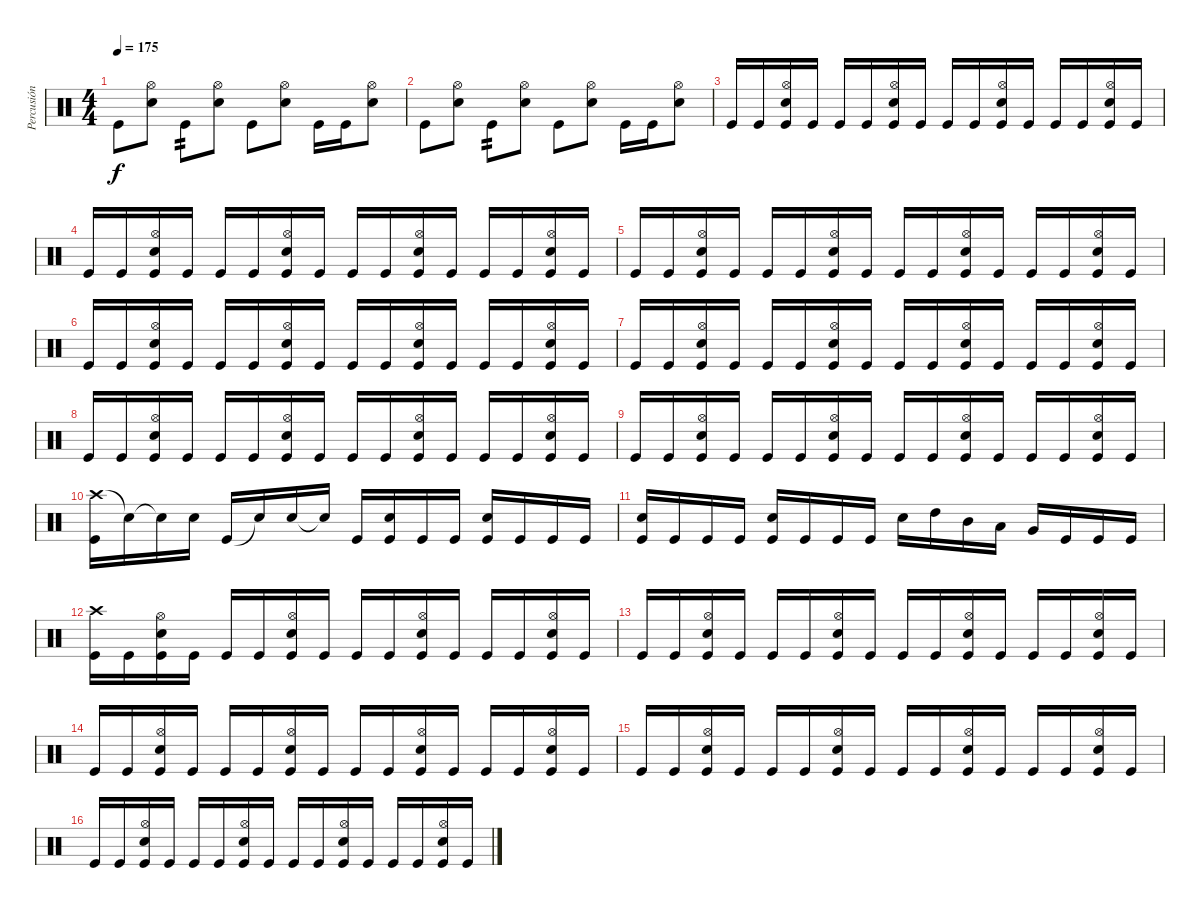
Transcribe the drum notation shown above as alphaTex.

\track ("Percusión" "Percusión") {instrument percussion}
\staff {score}
\articulation defaults
\ts (4 4)
\tempo 175
\clef neutral
\ks c "Kick (hit)".8{dy f}
("Hi-Hat (open)" "Snare (hit) 2").8 "Kick (hit)".8{tp 2} ("Hi-Hat (open)" "Snare (hit) 2").8 "Kick (hit)".8 ("Hi-Hat (open)" "Snare (hit) 2").8 "Kick (hit)".16 "Kick (hit)".16 ("Hi-Hat (open)" "Snare (hit) 2").8 |
"Kick (hit)".8 ("Hi-Hat (open)" "Snare (hit) 2").8 "Kick (hit)".8{tp 2} ("Hi-Hat (open)" "Snare (hit) 2").8 "Kick (hit)".8 ("Hi-Hat (open)" "Snare (hit) 2").8 "Kick (hit)".16 "Kick (hit)".16 ("Hi-Hat (open)" "Snare (hit) 2").8 |
"Kick (hit)".16 "Kick (hit)".16 ("Hi-Hat (open)" "Snare (hit) 2" "Kick (hit)").16 "Kick (hit)".16 "Kick (hit)".16 "Kick (hit)".16 ("Hi-Hat (open)" "Snare (hit) 2" "Kick (hit)").16 "Kick (hit)".16 "Kick (hit)".16 "Kick (hit)".16 ("Hi-Hat (open)" "Snare (hit) 2" "Kick (hit)").16 "Kick (hit)".16 "Kick (hit)".16 "Kick (hit)".16 ("Hi-Hat (open)" "Snare (hit) 2" "Kick (hit)").16 "Kick (hit)".16 |
"Kick (hit)".16 "Kick (hit)".16 ("Hi-Hat (open)" "Snare (hit) 2" "Kick (hit)").16 "Kick (hit)".16 "Kick (hit)".16 "Kick (hit)".16 ("Hi-Hat (open)" "Snare (hit) 2" "Kick (hit)").16 "Kick (hit)".16 "Kick (hit)".16 "Kick (hit)".16 ("Hi-Hat (open)" "Snare (hit) 2" "Kick (hit)").16 "Kick (hit)".16 "Kick (hit)".16 "Kick (hit)".16 ("Hi-Hat (open)" "Snare (hit) 2" "Kick (hit)").16 "Kick (hit)".16 |
"Kick (hit)".16 "Kick (hit)".16 ("Hi-Hat (open)" "Snare (hit) 2" "Kick (hit)").16 "Kick (hit)".16 "Kick (hit)".16 "Kick (hit)".16 ("Hi-Hat (open)" "Snare (hit) 2" "Kick (hit)").16 "Kick (hit)".16 "Kick (hit)".16 "Kick (hit)".16 ("Hi-Hat (open)" "Snare (hit) 2" "Kick (hit)").16 "Kick (hit)".16 "Kick (hit)".16 "Kick (hit)".16 ("Hi-Hat (open)" "Snare (hit) 2" "Kick (hit)").16 "Kick (hit)".16 |
"Kick (hit)".16 "Kick (hit)".16 ("Hi-Hat (open)" "Snare (hit) 2" "Kick (hit)").16 "Kick (hit)".16 "Kick (hit)".16 "Kick (hit)".16 ("Hi-Hat (open)" "Snare (hit) 2" "Kick (hit)").16 "Kick (hit)".16 "Kick (hit)".16 "Kick (hit)".16 ("Hi-Hat (open)" "Snare (hit) 2" "Kick (hit)").16 "Kick (hit)".16 "Kick (hit)".16 "Kick (hit)".16 ("Hi-Hat (open)" "Snare (hit) 2" "Kick (hit)").16 "Kick (hit)".16 |
"Kick (hit)".16 "Kick (hit)".16 ("Hi-Hat (open)" "Snare (hit) 2" "Kick (hit)").16 "Kick (hit)".16 "Kick (hit)".16 "Kick (hit)".16 ("Hi-Hat (open)" "Snare (hit) 2" "Kick (hit)").16 "Kick (hit)".16 "Kick (hit)".16 "Kick (hit)".16 ("Hi-Hat (open)" "Snare (hit) 2" "Kick (hit)").16 "Kick (hit)".16 "Kick (hit)".16 "Kick (hit)".16 ("Hi-Hat (open)" "Snare (hit) 2" "Kick (hit)").16 "Kick (hit)".16 |
"Kick (hit)".16 "Kick (hit)".16 ("Hi-Hat (open)" "Snare (hit) 2" "Kick (hit)").16 "Kick (hit)".16 "Kick (hit)".16 "Kick (hit)".16 ("Hi-Hat (open)" "Snare (hit) 2" "Kick (hit)").16 "Kick (hit)".16 "Kick (hit)".16 "Kick (hit)".16 ("Hi-Hat (open)" "Snare (hit) 2" "Kick (hit)").16 "Kick (hit)".16 "Kick (hit)".16 "Kick (hit)".16 ("Hi-Hat (open)" "Snare (hit) 2" "Kick (hit)").16 "Kick (hit)".16 |
"Kick (hit)".16 "Kick (hit)".16 ("Hi-Hat (open)" "Snare (hit) 2" "Kick (hit)").16 "Kick (hit)".16 "Kick (hit)".16 "Kick (hit)".16 ("Hi-Hat (open)" "Snare (hit) 2" "Kick (hit)").16 "Kick (hit)".16 "Kick (hit)".16 "Kick (hit)".16 ("Hi-Hat (open)" "Snare (hit) 2" "Kick (hit)").16 "Kick (hit)".16 "Kick (hit)".16 "Kick (hit)".16 ("Hi-Hat (open)" "Snare (hit) 2" "Kick (hit)").16 "Kick (hit)".16 |
("Crash high (hit)" "Kick (hit)").16 "Snare (hit)"{t}.16 "Snare (hit)"{t}.16 "Snare (hit) 2".16 "Kick (hit)".16 "Snare (hit)"{t}.16 "Snare (hit) 2".16 "Snare (hit)"{t}.16 "Kick (hit)".16 ("Snare (hit) 2" "Kick (hit)").16 "Kick (hit)".16 "Kick (hit)".16 ("Snare (hit) 2" "Kick (hit)").16 "Kick (hit)".16 "Kick (hit)".16 "Kick (hit)".16 |
("Snare (hit) 2" "Kick (hit)").16 "Kick (hit)".16 "Kick (hit)".16 "Kick (hit)".16 ("Snare (hit) 2" "Kick (hit)").16 "Kick (hit)".16 "Kick (hit)".16 "Kick (hit)".16 "Snare (hit) 2".16 "High Tom (hit)".16 "Mid Tom (hit)".16 "Low Tom (hit)".16 "Very Low Tom (hit)".16 "Kick (hit)".16 "Kick (hit)".16 "Kick (hit)".16 |
("Crash high (hit)" "Kick (hit)").16 "Kick (hit)".16 ("Hi-Hat (open)" "Snare (hit) 2" "Kick (hit)").16 "Kick (hit)".16 "Kick (hit)".16 "Kick (hit)".16 ("Hi-Hat (open)" "Snare (hit) 2" "Kick (hit)").16 "Kick (hit)".16 "Kick (hit)".16 "Kick (hit)".16 ("Hi-Hat (open)" "Snare (hit) 2" "Kick (hit)").16 "Kick (hit)".16 "Kick (hit)".16 "Kick (hit)".16 ("Hi-Hat (open)" "Snare (hit) 2" "Kick (hit)").16 "Kick (hit)".16 |
"Kick (hit)".16 "Kick (hit)".16 ("Hi-Hat (open)" "Snare (hit) 2" "Kick (hit)").16 "Kick (hit)".16 "Kick (hit)".16 "Kick (hit)".16 ("Hi-Hat (open)" "Snare (hit) 2" "Kick (hit)").16 "Kick (hit)".16 "Kick (hit)".16 "Kick (hit)".16 ("Hi-Hat (open)" "Snare (hit) 2" "Kick (hit)").16 "Kick (hit)".16 "Kick (hit)".16 "Kick (hit)".16 ("Hi-Hat (open)" "Snare (hit) 2" "Kick (hit)").16 "Kick (hit)".16 |
"Kick (hit)".16 "Kick (hit)".16 ("Hi-Hat (open)" "Snare (hit) 2" "Kick (hit)").16 "Kick (hit)".16 "Kick (hit)".16 "Kick (hit)".16 ("Hi-Hat (open)" "Snare (hit) 2" "Kick (hit)").16 "Kick (hit)".16 "Kick (hit)".16 "Kick (hit)".16 ("Hi-Hat (open)" "Snare (hit) 2" "Kick (hit)").16 "Kick (hit)".16 "Kick (hit)".16 "Kick (hit)".16 ("Hi-Hat (open)" "Snare (hit) 2" "Kick (hit)").16 "Kick (hit)".16 |
"Kick (hit)".16 "Kick (hit)".16 ("Hi-Hat (open)" "Snare (hit) 2" "Kick (hit)").16 "Kick (hit)".16 "Kick (hit)".16 "Kick (hit)".16 ("Hi-Hat (open)" "Snare (hit) 2" "Kick (hit)").16 "Kick (hit)".16 "Kick (hit)".16 "Kick (hit)".16 ("Hi-Hat (open)" "Snare (hit) 2" "Kick (hit)").16 "Kick (hit)".16 "Kick (hit)".16 "Kick (hit)".16 ("Hi-Hat (open)" "Snare (hit) 2" "Kick (hit)").16 "Kick (hit)".16 |
"Kick (hit)".16 "Kick (hit)".16 ("Hi-Hat (open)" "Snare (hit) 2" "Kick (hit)").16 "Kick (hit)".16 "Kick (hit)".16 "Kick (hit)".16 ("Hi-Hat (open)" "Snare (hit) 2" "Kick (hit)").16 "Kick (hit)".16 "Kick (hit)".16 "Kick (hit)".16 ("Hi-Hat (open)" "Snare (hit) 2" "Kick (hit)").16 "Kick (hit)".16 "Kick (hit)".16 "Kick (hit)".16 ("Hi-Hat (open)" "Snare (hit) 2" "Kick (hit)").16 "Kick (hit)".16
